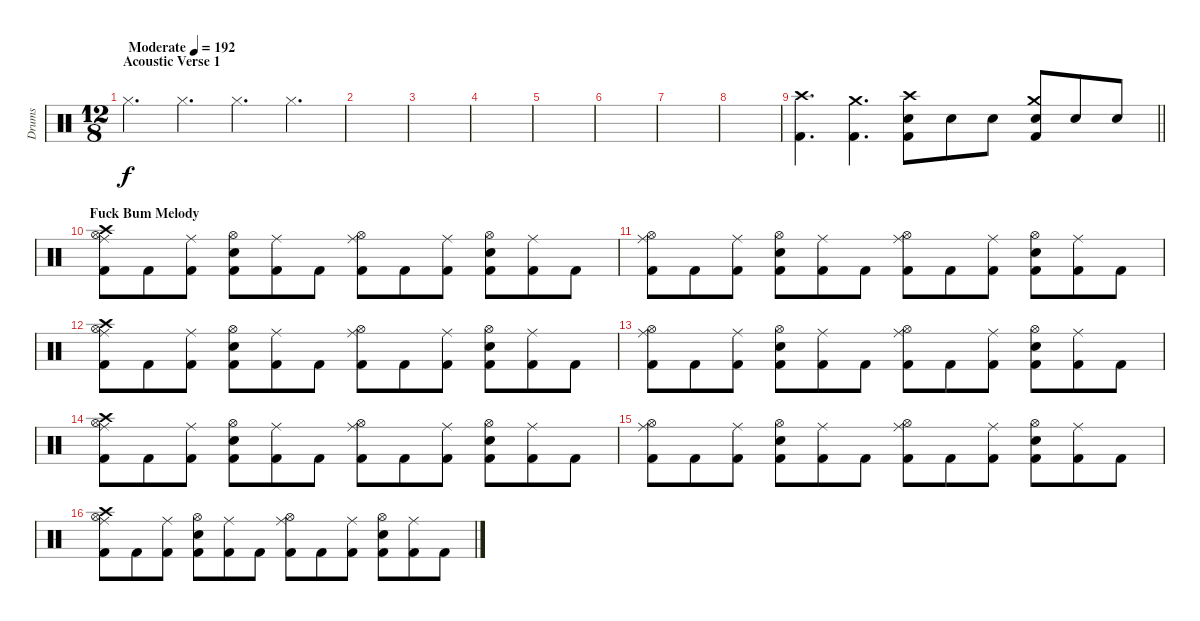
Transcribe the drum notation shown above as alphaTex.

\track ("Drums" "Drums") {instrument percussion}
\staff {score}
\articulation defaults
\ts (12 8)
\section ("" "Acoustic Verse 1")
\tempo (192 "Moderate")
\clef neutral
\ks c "Hi-Hat (closed)".4{d dy f} "Hi-Hat (closed)".4{d} "Hi-Hat (closed)".4{d} "Hi-Hat (closed)".4{d}
|
|
|
|
|
|
|
|
\barLineRight lightlight
("Crash high (hit)" "Kick (hit) 2").4{d} ("Crash medium (hit)" "Kick (hit) 2").4{d} ("Crash high (hit)" "Snare (hit) 2" "Kick (hit) 2").8 "Snare (hit) 2".8 "Snare (hit) 2".8 ("Crash medium (hit)" "Snare (hit) 2" "Kick (hit) 2").8 "Snare (hit) 2".8 "Snare (hit) 2".8 |
\section ("" "Fuck Bum Melody")
("Crash high (hit)" "Ride (middle)" "Hi-Hat (open)" "Kick (hit) 2").8 "Kick (hit) 2".8 ("Ride (middle)" "Kick (hit) 2").8 ("Hi-Hat (open)" "Snare (hit) 2" "Kick (hit) 2").8 ("Ride (middle)" "Kick (hit) 2").8 "Kick (hit) 2".8 ("Ride (middle)" "Hi-Hat (open)" "Kick (hit) 2").8 "Kick (hit) 2".8 ("Ride (middle)" "Kick (hit) 2").8 ("Hi-Hat (open)" "Snare (hit) 2" "Kick (hit) 2").8 ("Ride (middle)" "Kick (hit) 2").8 "Kick (hit) 2".8 |
("Ride (middle)" "Hi-Hat (open)" "Kick (hit) 2").8 "Kick (hit) 2".8 ("Ride (middle)" "Kick (hit) 2").8 ("Hi-Hat (open)" "Snare (hit) 2" "Kick (hit) 2").8 ("Ride (middle)" "Kick (hit) 2").8 "Kick (hit) 2".8 ("Ride (middle)" "Hi-Hat (open)" "Kick (hit) 2").8 "Kick (hit) 2".8 ("Ride (middle)" "Kick (hit) 2").8 ("Hi-Hat (open)" "Snare (hit) 2" "Kick (hit) 2").8 ("Ride (middle)" "Kick (hit) 2").8 "Kick (hit) 2".8 |
("Crash high (hit)" "Ride (middle)" "Hi-Hat (open)" "Kick (hit) 2").8 "Kick (hit) 2".8 ("Ride (middle)" "Kick (hit) 2").8 ("Hi-Hat (open)" "Snare (hit) 2" "Kick (hit) 2").8 ("Ride (middle)" "Kick (hit) 2").8 "Kick (hit) 2".8 ("Ride (middle)" "Hi-Hat (open)" "Kick (hit) 2").8 "Kick (hit) 2".8 ("Ride (middle)" "Kick (hit) 2").8 ("Hi-Hat (open)" "Snare (hit) 2" "Kick (hit) 2").8 ("Ride (middle)" "Kick (hit) 2").8 "Kick (hit) 2".8 |
("Ride (middle)" "Hi-Hat (open)" "Kick (hit) 2").8 "Kick (hit) 2".8 ("Ride (middle)" "Kick (hit) 2").8 ("Hi-Hat (open)" "Snare (hit) 2" "Kick (hit) 2").8 ("Ride (middle)" "Kick (hit) 2").8 "Kick (hit) 2".8 ("Ride (middle)" "Hi-Hat (open)" "Kick (hit) 2").8 "Kick (hit) 2".8 ("Ride (middle)" "Kick (hit) 2").8 ("Hi-Hat (open)" "Snare (hit) 2" "Kick (hit) 2").8 ("Ride (middle)" "Kick (hit) 2").8 "Kick (hit) 2".8 |
("Crash high (hit)" "Ride (middle)" "Hi-Hat (open)" "Kick (hit) 2").8 "Kick (hit) 2".8 ("Ride (middle)" "Kick (hit) 2").8 ("Hi-Hat (open)" "Snare (hit) 2" "Kick (hit) 2").8 ("Ride (middle)" "Kick (hit) 2").8 "Kick (hit) 2".8 ("Ride (middle)" "Hi-Hat (open)" "Kick (hit) 2").8 "Kick (hit) 2".8 ("Ride (middle)" "Kick (hit) 2").8 ("Hi-Hat (open)" "Snare (hit) 2" "Kick (hit) 2").8 ("Ride (middle)" "Kick (hit) 2").8 "Kick (hit) 2".8 |
("Ride (middle)" "Hi-Hat (open)" "Kick (hit) 2").8 "Kick (hit) 2".8 ("Ride (middle)" "Kick (hit) 2").8 ("Hi-Hat (open)" "Snare (hit) 2" "Kick (hit) 2").8 ("Ride (middle)" "Kick (hit) 2").8 "Kick (hit) 2".8 ("Ride (middle)" "Hi-Hat (open)" "Kick (hit) 2").8 "Kick (hit) 2".8 ("Ride (middle)" "Kick (hit) 2").8 ("Hi-Hat (open)" "Snare (hit) 2" "Kick (hit) 2").8 ("Ride (middle)" "Kick (hit) 2").8 "Kick (hit) 2".8 |
("Crash high (hit)" "Ride (middle)" "Hi-Hat (open)" "Kick (hit) 2").8 "Kick (hit) 2".8 ("Ride (middle)" "Kick (hit) 2").8 ("Hi-Hat (open)" "Snare (hit) 2" "Kick (hit) 2").8 ("Ride (middle)" "Kick (hit) 2").8 "Kick (hit) 2".8 ("Ride (middle)" "Hi-Hat (open)" "Kick (hit) 2").8 "Kick (hit) 2".8 ("Ride (middle)" "Kick (hit) 2").8 ("Hi-Hat (open)" "Snare (hit) 2" "Kick (hit) 2").8 ("Ride (middle)" "Kick (hit) 2").8 "Kick (hit) 2".8
